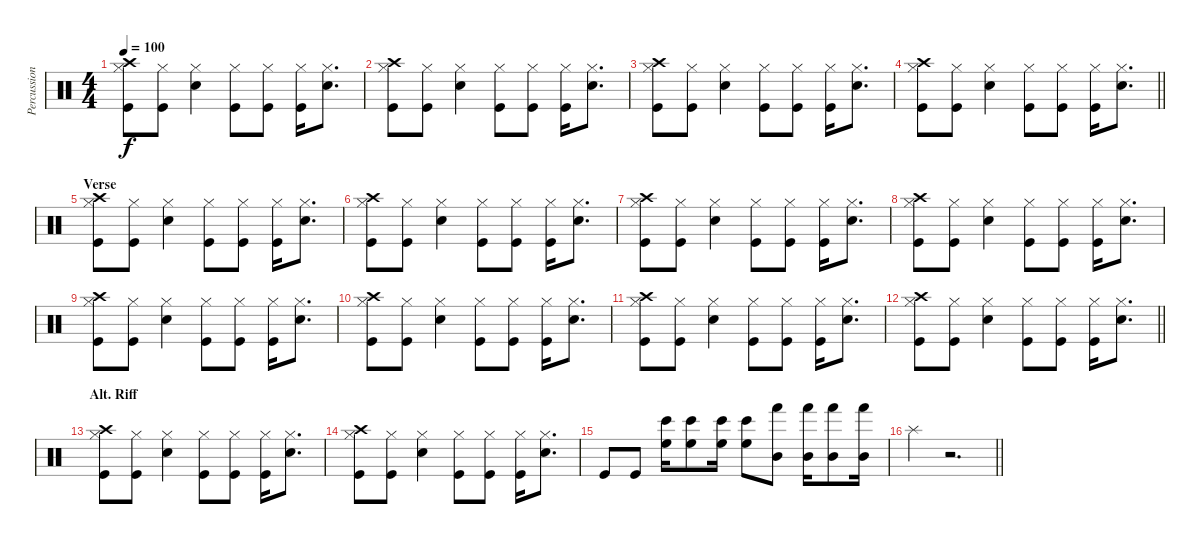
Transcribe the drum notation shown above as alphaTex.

\track ("Percussion" "Percussion") {instrument percussion}
\staff {score}
\articulation defaults
\ts (4 4)
\tempo 100
\clef neutral
\ks c
("Crash high (hit)" "Kick (hit)" "Hi-Hat (closed)").8{dy f} ("Kick (hit)" "Hi-Hat (closed)").8 ("Snare (hit) 2" "Hi-Hat (closed)").4 ("Kick (hit)" "Hi-Hat (closed)").8 ("Kick (hit)" "Hi-Hat (closed)").8 ("Kick (hit)" "Hi-Hat (closed)").16 ("Snare (hit) 2" "Hi-Hat (closed)").8{d} |
("Crash high (hit)" "Kick (hit)" "Hi-Hat (closed)").8 ("Kick (hit)" "Hi-Hat (closed)").8 ("Snare (hit) 2" "Hi-Hat (closed)").4 ("Kick (hit)" "Hi-Hat (closed)").8 ("Kick (hit)" "Hi-Hat (closed)").8 ("Kick (hit)" "Hi-Hat (closed)").16 ("Snare (hit) 2" "Hi-Hat (closed)").8{d} |
("Crash high (hit)" "Kick (hit)" "Hi-Hat (closed)").8 ("Kick (hit)" "Hi-Hat (closed)").8 ("Snare (hit) 2" "Hi-Hat (closed)").4 ("Kick (hit)" "Hi-Hat (closed)").8 ("Kick (hit)" "Hi-Hat (closed)").8 ("Kick (hit)" "Hi-Hat (closed)").16 ("Snare (hit) 2" "Hi-Hat (closed)").8{d} |
\barLineRight lightlight
("Crash high (hit)" "Kick (hit)" "Hi-Hat (closed)").8 ("Kick (hit)" "Hi-Hat (closed)").8 ("Snare (hit) 2" "Hi-Hat (closed)").4 ("Kick (hit)" "Hi-Hat (closed)").8 ("Kick (hit)" "Hi-Hat (closed)").8 ("Kick (hit)" "Hi-Hat (closed)").16 ("Snare (hit) 2" "Hi-Hat (closed)").8{d} |
\section ("" "Verse")
("Crash high (hit)" "Kick (hit)" "Hi-Hat (closed)").8 ("Kick (hit)" "Hi-Hat (closed)").8 ("Snare (hit) 2" "Hi-Hat (closed)").4 ("Kick (hit)" "Hi-Hat (closed)").8 ("Kick (hit)" "Hi-Hat (closed)").8 ("Kick (hit)" "Hi-Hat (closed)").16 ("Snare (hit) 2" "Hi-Hat (closed)").8{d} |
("Crash high (hit)" "Kick (hit)" "Hi-Hat (closed)").8 ("Kick (hit)" "Hi-Hat (closed)").8 ("Snare (hit) 2" "Hi-Hat (closed)").4 ("Kick (hit)" "Hi-Hat (closed)").8 ("Kick (hit)" "Hi-Hat (closed)").8 ("Kick (hit)" "Hi-Hat (closed)").16 ("Snare (hit) 2" "Hi-Hat (closed)").8{d} |
("Crash high (hit)" "Kick (hit)" "Hi-Hat (closed)").8 ("Kick (hit)" "Hi-Hat (closed)").8 ("Snare (hit) 2" "Hi-Hat (closed)").4 ("Kick (hit)" "Hi-Hat (closed)").8 ("Kick (hit)" "Hi-Hat (closed)").8 ("Kick (hit)" "Hi-Hat (closed)").16 ("Snare (hit) 2" "Hi-Hat (closed)").8{d} |
("Crash high (hit)" "Kick (hit)" "Hi-Hat (closed)").8 ("Kick (hit)" "Hi-Hat (closed)").8 ("Snare (hit) 2" "Hi-Hat (closed)").4 ("Kick (hit)" "Hi-Hat (closed)").8 ("Kick (hit)" "Hi-Hat (closed)").8 ("Kick (hit)" "Hi-Hat (closed)").16 ("Snare (hit) 2" "Hi-Hat (closed)").8{d} |
("Crash high (hit)" "Kick (hit)" "Hi-Hat (closed)").8 ("Kick (hit)" "Hi-Hat (closed)").8 ("Snare (hit) 2" "Hi-Hat (closed)").4 ("Kick (hit)" "Hi-Hat (closed)").8 ("Kick (hit)" "Hi-Hat (closed)").8 ("Kick (hit)" "Hi-Hat (closed)").16 ("Snare (hit) 2" "Hi-Hat (closed)").8{d} |
("Crash high (hit)" "Kick (hit)" "Hi-Hat (closed)").8 ("Kick (hit)" "Hi-Hat (closed)").8 ("Snare (hit) 2" "Hi-Hat (closed)").4 ("Kick (hit)" "Hi-Hat (closed)").8 ("Kick (hit)" "Hi-Hat (closed)").8 ("Kick (hit)" "Hi-Hat (closed)").16 ("Snare (hit) 2" "Hi-Hat (closed)").8{d} |
("Crash high (hit)" "Kick (hit)" "Hi-Hat (closed)").8 ("Kick (hit)" "Hi-Hat (closed)").8 ("Snare (hit) 2" "Hi-Hat (closed)").4 ("Kick (hit)" "Hi-Hat (closed)").8 ("Kick (hit)" "Hi-Hat (closed)").8 ("Kick (hit)" "Hi-Hat (closed)").16 ("Snare (hit) 2" "Hi-Hat (closed)").8{d} |
\barLineRight lightlight
("Crash high (hit)" "Kick (hit)" "Hi-Hat (closed)").8 ("Kick (hit)" "Hi-Hat (closed)").8 ("Snare (hit) 2" "Hi-Hat (closed)").4 ("Kick (hit)" "Hi-Hat (closed)").8 ("Kick (hit)" "Hi-Hat (closed)").8 ("Kick (hit)" "Hi-Hat (closed)").16 ("Snare (hit) 2" "Hi-Hat (closed)").8{d} |
\section ("" "Alt. Riff")
("Crash high (hit)" "Kick (hit)" "Hi-Hat (closed)").8 ("Kick (hit)" "Hi-Hat (closed)").8 ("Snare (hit) 2" "Hi-Hat (closed)").4 ("Kick (hit)" "Hi-Hat (closed)").8 ("Kick (hit)" "Hi-Hat (closed)").8 ("Kick (hit)" "Hi-Hat (closed)").16 ("Snare (hit) 2" "Hi-Hat (closed)").8{d} |
("Crash high (hit)" "Kick (hit)" "Hi-Hat (closed)").8 ("Kick (hit)" "Hi-Hat (closed)").8 ("Snare (hit) 2" "Hi-Hat (closed)").4 ("Kick (hit)" "Hi-Hat (closed)").8 ("Kick (hit)" "Hi-Hat (closed)").8 ("Kick (hit)" "Hi-Hat (closed)").16 ("Snare (hit) 2" "Hi-Hat (closed)").8{d} |
"Kick (hit)".8 "Kick (hit)".8 ("High Floor Tom (hit)" "Bongo High (hit)").16 ("High Floor Tom (hit)" "Bongo High (hit)").8 ("High Floor Tom (hit)" "Bongo High (hit)").16 ("High Floor Tom (hit)" "Bongo High (hit)").8 ("Mid Tom (hit)" "Hand (hit)").8 ("Mid Tom (hit)" "Hand (hit)").16 ("Mid Tom (hit)" "Hand (hit)").8 ("Mid Tom (hit)" "Hand (hit)").16 |
\barLineRight lightlight "Splash (hit)".4
r.2{d}
